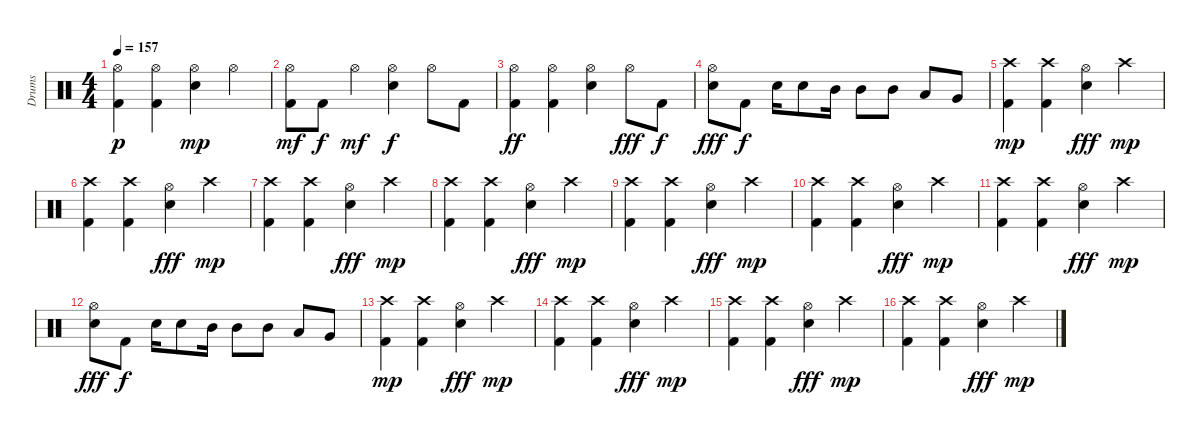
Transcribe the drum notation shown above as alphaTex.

\track ("Drums" "Drums") {instrument percussion}
\staff {score}
\articulation defaults
\ts (4 4)
\tempo 157
\clef neutral
\ks c
("Hi-Hat (open)" "Kick (hit) 2").4{dy p} ("Hi-Hat (open)" "Kick (hit) 2").4 ("Hi-Hat (open)" "Electric Snare (hit)").4{dy mp} "Hi-Hat (open)".4 |
("Hi-Hat (open)" "Kick (hit) 2").8{dy mf} "Kick (hit) 2".8{dy f} "Hi-Hat (open)".4{dy mf} ("Hi-Hat (open)" "Electric Snare (hit)").4{dy f} "Hi-Hat (open)".8 "Kick (hit) 2".8 |
("Hi-Hat (open)" "Kick (hit) 2").4{dy ff} ("Hi-Hat (open)" "Kick (hit) 2").4 ("Hi-Hat (open)" "Electric Snare (hit)").4 "Hi-Hat (open)".8{dy fff} "Kick (hit) 2".8{dy f} |
("Hi-Hat (open)" "Electric Snare (hit)").8{dy fff} "Kick (hit) 2".8{dy f} "Electric Snare (hit)".16 "Electric Snare (hit)".8 "Mid Tom (hit)".16 "Mid Tom (hit)".8 "Mid Tom (hit)".8 "Low Tom (hit)".8 "Very Low Tom (hit)".8 |
("Crash high (hit)" "Kick (hit) 2").4{dy mp} ("Crash high (hit)" "Kick (hit) 2").4 ("Hi-Hat (open)" "Snare (hit) 2").4{dy fff} "Crash high (hit)".4{dy mp} |
("Crash high (hit)" "Kick (hit) 2").4 ("Crash high (hit)" "Kick (hit) 2").4 ("Hi-Hat (open)" "Snare (hit) 2").4{dy fff} "Crash high (hit)".4{dy mp} |
("Crash high (hit)" "Kick (hit) 2").4 ("Crash high (hit)" "Kick (hit) 2").4 ("Hi-Hat (open)" "Snare (hit) 2").4{dy fff} "Crash high (hit)".4{dy mp} |
("Crash high (hit)" "Kick (hit) 2").4 ("Crash high (hit)" "Kick (hit) 2").4 ("Hi-Hat (open)" "Snare (hit) 2").4{dy fff} "Crash high (hit)".4{dy mp} |
("Crash high (hit)" "Kick (hit) 2").4 ("Crash high (hit)" "Kick (hit) 2").4 ("Hi-Hat (open)" "Snare (hit) 2").4{dy fff} "Crash high (hit)".4{dy mp} |
("Crash high (hit)" "Kick (hit) 2").4 ("Crash high (hit)" "Kick (hit) 2").4 ("Hi-Hat (open)" "Snare (hit) 2").4{dy fff} "Crash high (hit)".4{dy mp} |
("Crash high (hit)" "Kick (hit) 2").4 ("Crash high (hit)" "Kick (hit) 2").4 ("Hi-Hat (open)" "Snare (hit) 2").4{dy fff} "Crash high (hit)".4{dy mp} |
("Hi-Hat (open)" "Snare (hit) 2").8{dy fff} "Kick (hit) 2".8{dy f} "Snare (hit) 2".16 "Snare (hit) 2".8 "Mid Tom (hit)".16 "Mid Tom (hit)".8 "Mid Tom (hit)".8 "Low Tom (hit)".8 "Very Low Tom (hit)".8 |
("Crash high (hit)" "Kick (hit) 2").4{dy mp} ("Crash high (hit)" "Kick (hit) 2").4 ("Hi-Hat (open)" "Snare (hit) 2").4{dy fff} "Crash high (hit)".4{dy mp} |
("Crash high (hit)" "Kick (hit) 2").4 ("Crash high (hit)" "Kick (hit) 2").4 ("Hi-Hat (open)" "Snare (hit) 2").4{dy fff} "Crash high (hit)".4{dy mp} |
("Crash high (hit)" "Kick (hit) 2").4 ("Crash high (hit)" "Kick (hit) 2").4 ("Hi-Hat (open)" "Snare (hit) 2").4{dy fff} "Crash high (hit)".4{dy mp} |
("Crash high (hit)" "Kick (hit) 2").4 ("Crash high (hit)" "Kick (hit) 2").4 ("Hi-Hat (open)" "Snare (hit) 2").4{dy fff} "Crash high (hit)".4{dy mp}
